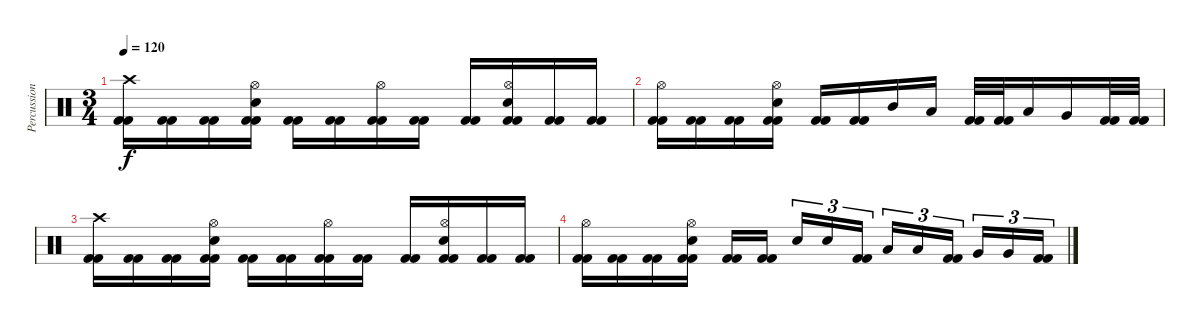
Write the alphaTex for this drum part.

\track ("Percussion" "Percussion") {instrument percussion}
\staff {score}
\articulation defaults
\ts (3 4)
\tempo 120
\clef neutral
\ks c
("Crash high (hit)" "Kick (hit) 2" "Kick (hit) 2").16{dy f} ("Kick (hit) 2" "Kick (hit) 2").16 ("Kick (hit) 2" "Kick (hit) 2").16 ("Hi-Hat (open)" "Snare (hit) 2" "Kick (hit) 2" "Kick (hit) 2").16 ("Kick (hit) 2" "Kick (hit) 2").16 ("Kick (hit) 2" "Kick (hit) 2").16 ("Hi-Hat (open)" "Kick (hit) 2" "Kick (hit) 2").16 ("Kick (hit) 2" "Kick (hit) 2").16 ("Kick (hit) 2" "Kick (hit) 2").16 ("Hi-Hat (open)" "Snare (hit) 2" "Kick (hit) 2" "Kick (hit) 2").16 ("Kick (hit) 2" "Kick (hit) 2").16 ("Kick (hit) 2" "Kick (hit) 2").16 |
("Hi-Hat (open)" "Kick (hit) 2" "Kick (hit) 2").16 ("Kick (hit) 2" "Kick (hit) 2").16 ("Kick (hit) 2" "Kick (hit) 2").16 ("Hi-Hat (open)" "Snare (hit) 2" "Kick (hit) 2" "Kick (hit) 2").16 ("Kick (hit) 2" "Kick (hit) 2").16 ("Kick (hit) 2" "Kick (hit) 2").16 "Mid Tom (hit)".16 "Low Tom (hit)".16 ("Kick (hit) 2" "Kick (hit) 2").32 ("Kick (hit) 2" "Kick (hit) 2").32 "Low Tom (hit)".16 "Very Low Tom (hit)".16 ("Kick (hit) 2" "Kick (hit) 2").32 ("Kick (hit) 2" "Kick (hit) 2").32 |
("Crash high (hit)" "Kick (hit) 2" "Kick (hit) 2").16 ("Kick (hit) 2" "Kick (hit) 2").16 ("Kick (hit) 2" "Kick (hit) 2").16 ("Hi-Hat (open)" "Snare (hit) 2" "Kick (hit) 2" "Kick (hit) 2").16 ("Kick (hit) 2" "Kick (hit) 2").16 ("Kick (hit) 2" "Kick (hit) 2").16 ("Hi-Hat (open)" "Kick (hit) 2" "Kick (hit) 2").16 ("Kick (hit) 2" "Kick (hit) 2").16 ("Kick (hit) 2" "Kick (hit) 2").16 ("Hi-Hat (open)" "Snare (hit) 2" "Kick (hit) 2" "Kick (hit) 2").16 ("Kick (hit) 2" "Kick (hit) 2").16 ("Kick (hit) 2" "Kick (hit) 2").16 |
("Hi-Hat (open)" "Kick (hit) 2" "Kick (hit) 2").16 ("Kick (hit) 2" "Kick (hit) 2").16 ("Kick (hit) 2" "Kick (hit) 2").16 ("Hi-Hat (open)" "Snare (hit) 2" "Kick (hit) 2" "Kick (hit) 2").16 ("Kick (hit) 2" "Kick (hit) 2").16 ("Kick (hit) 2" "Kick (hit) 2").16 "Snare (hit) 2".16{tu (3 2)} "Snare (hit) 2".16{tu (3 2)} ("Kick (hit) 2" "Kick (hit) 2").16{tu (3 2)} "Low Tom (hit)".16{tu (3 2)} "Low Tom (hit)".16{tu (3 2)} ("Kick (hit) 2" "Kick (hit) 2").16{tu (3 2)} "Very Low Tom (hit)".16{tu (3 2)} "Very Low Tom (hit)".16{tu (3 2)} ("Kick (hit) 2" "Kick (hit) 2").16{tu (3 2)}
